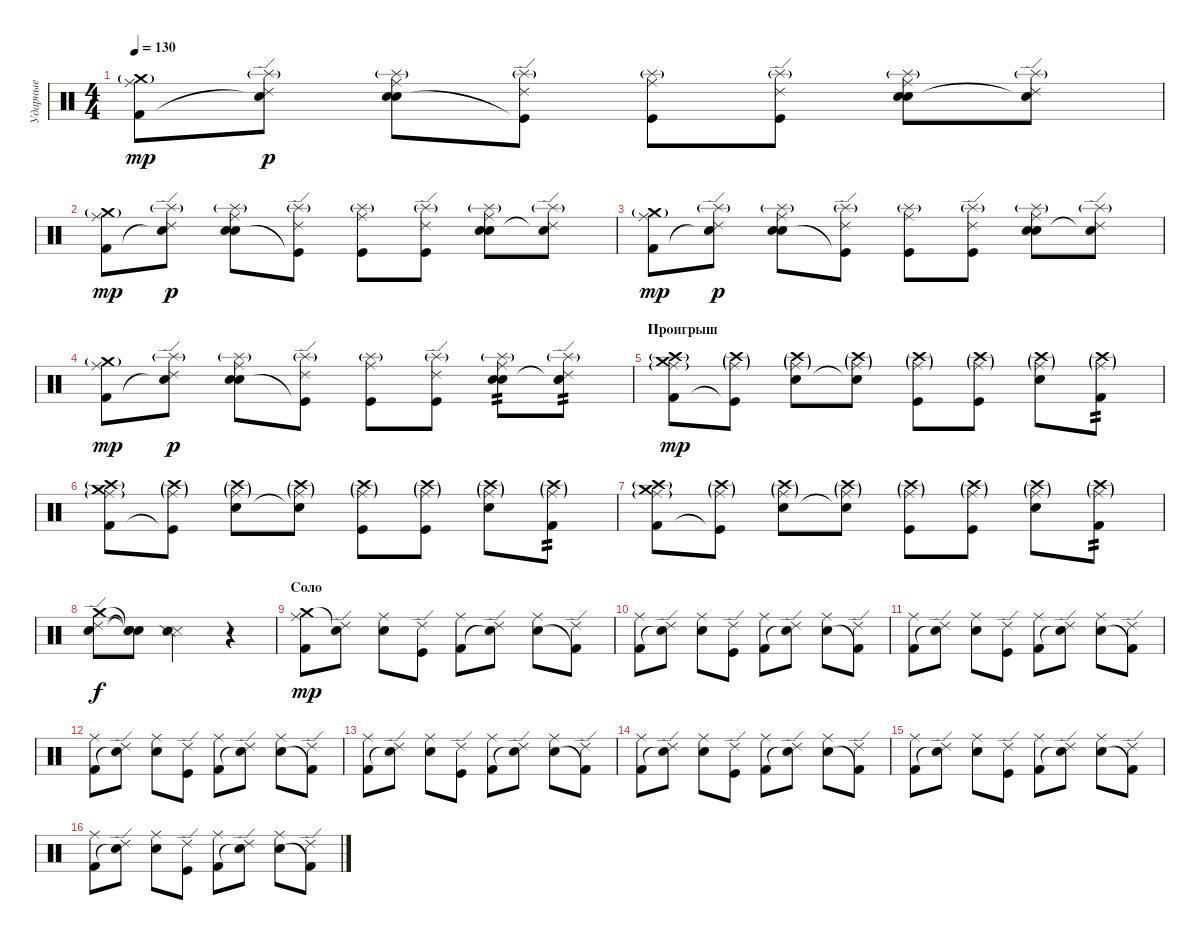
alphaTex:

\track ("Ударные" "Ударные") {instrument percussion}
\staff {score}
\articulation defaults
\ts (4 4)
\tempo 130
\clef neutral
\ks c
("Crash medium (hit)"{g} "Ride (middle)" "Kick (hit) 2").8{dy mp} ("Splash (hit)"{g} "Ride (edge) 2" "Snare (hit)"{t}).8{dy p} ("Splash (hit)"{g} "Ride (middle)" "Snare (hit) 2" "Electric Snare (hit)").8 ("Splash (hit)"{g} "Ride (edge) 2" "Kick (hit)"{t}).8 ("Splash (hit)"{g} "Ride (middle)" "Kick (hit)").8 ("Splash (hit)"{g} "Ride (edge) 2" "Kick (hit)").8 ("Splash (hit)"{g} "Ride (middle)" "Snare (hit) 2" "Electric Snare (hit)").8 ("Splash (hit)"{g} "Ride (edge) 2" "Snare (hit)"{t}).8 |
("Crash medium (hit)"{g} "Ride (middle)" "Kick (hit) 2").8{dy mp} ("Splash (hit)"{g} "Ride (edge) 2" "Snare (hit)"{t}).8{dy p} ("Splash (hit)"{g} "Ride (middle)" "Snare (hit) 2" "Electric Snare (hit)").8 ("Splash (hit)"{g} "Ride (edge) 2" "Kick (hit)"{t}).8 ("Splash (hit)"{g} "Ride (middle)" "Kick (hit)").8 ("Splash (hit)"{g} "Ride (edge) 2" "Kick (hit)").8 ("Splash (hit)"{g} "Ride (middle)" "Snare (hit) 2" "Electric Snare (hit)").8 ("Splash (hit)"{g} "Ride (edge) 2" "Snare (hit)"{t}).8 |
("Crash medium (hit)"{g} "Ride (middle)" "Kick (hit) 2").8{dy mp} ("Splash (hit)"{g} "Ride (edge) 2" "Snare (hit)"{t}).8{dy p} ("Splash (hit)"{g} "Ride (middle)" "Snare (hit) 2" "Electric Snare (hit)").8 ("Splash (hit)"{g} "Ride (edge) 2" "Kick (hit)"{t}).8 ("Splash (hit)"{g} "Ride (middle)" "Kick (hit)").8 ("Splash (hit)"{g} "Ride (edge) 2" "Kick (hit)").8 ("Splash (hit)"{g} "Ride (middle)" "Snare (hit) 2" "Electric Snare (hit)").8 ("Splash (hit)"{g} "Ride (edge) 2" "Snare (hit)"{t}).8 |
("Crash medium (hit)"{g} "Ride (middle)" "Kick (hit) 2").8{dy mp} ("Splash (hit)"{g} "Ride (edge) 2" "Snare (hit)"{t}).8{dy p} ("Splash (hit)"{g} "Ride (middle)" "Snare (hit) 2" "Electric Snare (hit)").8 ("Splash (hit)"{g} "Ride (edge) 2" "Kick (hit)"{t}).8 ("Splash (hit)"{g} "Ride (middle)" "Kick (hit)").8 ("Splash (hit)"{g} "Ride (edge) 2" "Kick (hit)").8 ("Splash (hit)"{g} "Ride (middle)" "Snare (hit) 2" "Electric Snare (hit)").8{tp 2} ("Splash (hit)"{g} "Ride (edge) 2" "Snare (hit)"{t} "Electric Snare (hit)").8{tp 2} |
\section ("" "Проигрыш")
("Crash high (hit)"{g} "Ride (middle)"{g} "Kick (hit) 2" "Crash medium (hit)").8{dy mp} ("Crash high (hit)"{g} "Ride (middle)"{g} "Kick (hit)"{t}).8 ("Crash high (hit)"{g} "Ride (middle)"{g} "Snare (hit) 2").8 ("Crash high (hit)"{g} "Ride (middle)"{g} "Snare (hit)"{t}).8 ("Crash high (hit)"{g} "Ride (middle)"{g} "Kick (hit)").8 ("Crash high (hit)"{g} "Ride (middle)"{g} "Kick (hit)").8 ("Crash high (hit)"{g} "Ride (middle)"{g} "Snare (hit) 2").8 ("Crash high (hit)"{g} "Ride (middle)"{g} "Kick (hit) 2").8{tp 2} |
("Crash high (hit)"{g} "Ride (middle)"{g} "Kick (hit) 2" "Crash medium (hit)").8 ("Crash high (hit)"{g} "Ride (middle)"{g} "Kick (hit)"{t}).8 ("Crash high (hit)"{g} "Ride (middle)"{g} "Snare (hit) 2").8 ("Crash high (hit)"{g} "Ride (middle)"{g} "Snare (hit)"{t}).8 ("Crash high (hit)"{g} "Ride (middle)"{g} "Kick (hit)").8 ("Crash high (hit)"{g} "Ride (middle)"{g} "Kick (hit)").8 ("Crash high (hit)"{g} "Ride (middle)"{g} "Snare (hit) 2").8 ("Crash high (hit)"{g} "Ride (middle)"{g} "Kick (hit) 2").8{tp 2} |
("Crash high (hit)"{g} "Ride (middle)"{g} "Kick (hit) 2" "Crash medium (hit)").8 ("Crash high (hit)"{g} "Ride (middle)"{g} "Kick (hit)"{t}).8 ("Crash high (hit)"{g} "Ride (middle)"{g} "Snare (hit) 2").8 ("Crash high (hit)"{g} "Ride (middle)"{g} "Snare (hit)"{t}).8 ("Crash high (hit)"{g} "Ride (middle)"{g} "Kick (hit)").8 ("Crash high (hit)"{g} "Ride (middle)"{g} "Kick (hit)").8 ("Crash high (hit)"{g} "Ride (middle)"{g} "Snare (hit) 2").8 ("Crash high (hit)"{g} "Ride (middle)"{g} "Kick (hit) 2").8{tp 2} |
("Ride (edge) 2" "Crash medium (hit)" "Snare (hit) 2").8{dy f} ("Snare (hit)"{t} "Snare (hit)"{t} "Snare (hit)"{t}).8 ("Metronome (hit)" "Snare (side stick) 2").2 r.4 |
\section ("" "Соло")
("Ride (middle)" "Crash medium (hit)" "Kick (hit) 2").8{dy mp} ("Ride (edge) 2" "Snare (hit)"{t}).8 ("Ride (middle)" "Snare (hit) 2").8 ("Ride (edge) 2" "Kick (hit)").8 ("Ride (middle)" "Kick (hit) 2").8 ("Ride (edge) 2" "Snare (hit)"{t}).8 ("Ride (middle)" "Snare (hit) 2").8 ("Ride (edge) 2" "Kick (hit) 2"{t}).8 |
("Ride (middle)" "Kick (hit) 2").8 ("Ride (edge) 2" "Snare (hit)"{t}).8 ("Ride (middle)" "Snare (hit) 2").8 ("Ride (edge) 2" "Kick (hit)").8 ("Ride (middle)" "Kick (hit) 2").8 ("Ride (edge) 2" "Snare (hit)"{t}).8 ("Ride (middle)" "Snare (hit) 2").8 ("Ride (edge) 2" "Kick (hit) 2"{t}).8 |
("Ride (middle)" "Kick (hit) 2").8 ("Ride (edge) 2" "Snare (hit)"{t}).8 ("Ride (middle)" "Snare (hit) 2").8 ("Ride (edge) 2" "Kick (hit)").8 ("Ride (middle)" "Kick (hit) 2").8 ("Ride (edge) 2" "Snare (hit)"{t}).8 ("Ride (middle)" "Snare (hit) 2").8 ("Ride (edge) 2" "Kick (hit) 2"{t}).8 |
("Ride (middle)" "Kick (hit) 2").8 ("Ride (edge) 2" "Snare (hit)"{t}).8 ("Ride (middle)" "Snare (hit) 2").8 ("Ride (edge) 2" "Kick (hit)").8 ("Ride (middle)" "Kick (hit) 2").8 ("Ride (edge) 2" "Snare (hit)"{t}).8 ("Ride (middle)" "Snare (hit) 2").8 ("Ride (edge) 2" "Kick (hit) 2"{t}).8 |
("Ride (middle)" "Kick (hit) 2").8 ("Ride (edge) 2" "Snare (hit)"{t}).8 ("Ride (middle)" "Snare (hit) 2").8 ("Ride (edge) 2" "Kick (hit)").8 ("Ride (middle)" "Kick (hit) 2").8 ("Ride (edge) 2" "Snare (hit)"{t}).8 ("Ride (middle)" "Snare (hit) 2").8 ("Ride (edge) 2" "Kick (hit) 2"{t}).8 |
("Ride (middle)" "Kick (hit) 2").8 ("Ride (edge) 2" "Snare (hit)"{t}).8 ("Ride (middle)" "Snare (hit) 2").8 ("Ride (edge) 2" "Kick (hit)").8 ("Ride (middle)" "Kick (hit) 2").8 ("Ride (edge) 2" "Snare (hit)"{t}).8 ("Ride (middle)" "Snare (hit) 2").8 ("Ride (edge) 2" "Kick (hit) 2"{t}).8 |
("Ride (middle)" "Kick (hit) 2").8 ("Ride (edge) 2" "Snare (hit)"{t}).8 ("Ride (middle)" "Snare (hit) 2").8 ("Ride (edge) 2" "Kick (hit)").8 ("Ride (middle)" "Kick (hit) 2").8 ("Ride (edge) 2" "Snare (hit)"{t}).8 ("Ride (middle)" "Snare (hit) 2").8 ("Ride (edge) 2" "Kick (hit) 2"{t}).8 |
("Ride (middle)" "Kick (hit) 2").8 ("Ride (edge) 2" "Snare (hit)"{t}).8 ("Ride (middle)" "Snare (hit) 2").8 ("Ride (edge) 2" "Kick (hit)").8 ("Ride (middle)" "Kick (hit) 2").8 ("Ride (edge) 2" "Snare (hit)"{t}).8 ("Ride (middle)" "Snare (hit) 2").8 ("Ride (edge) 2" "Kick (hit) 2"{t}).8
